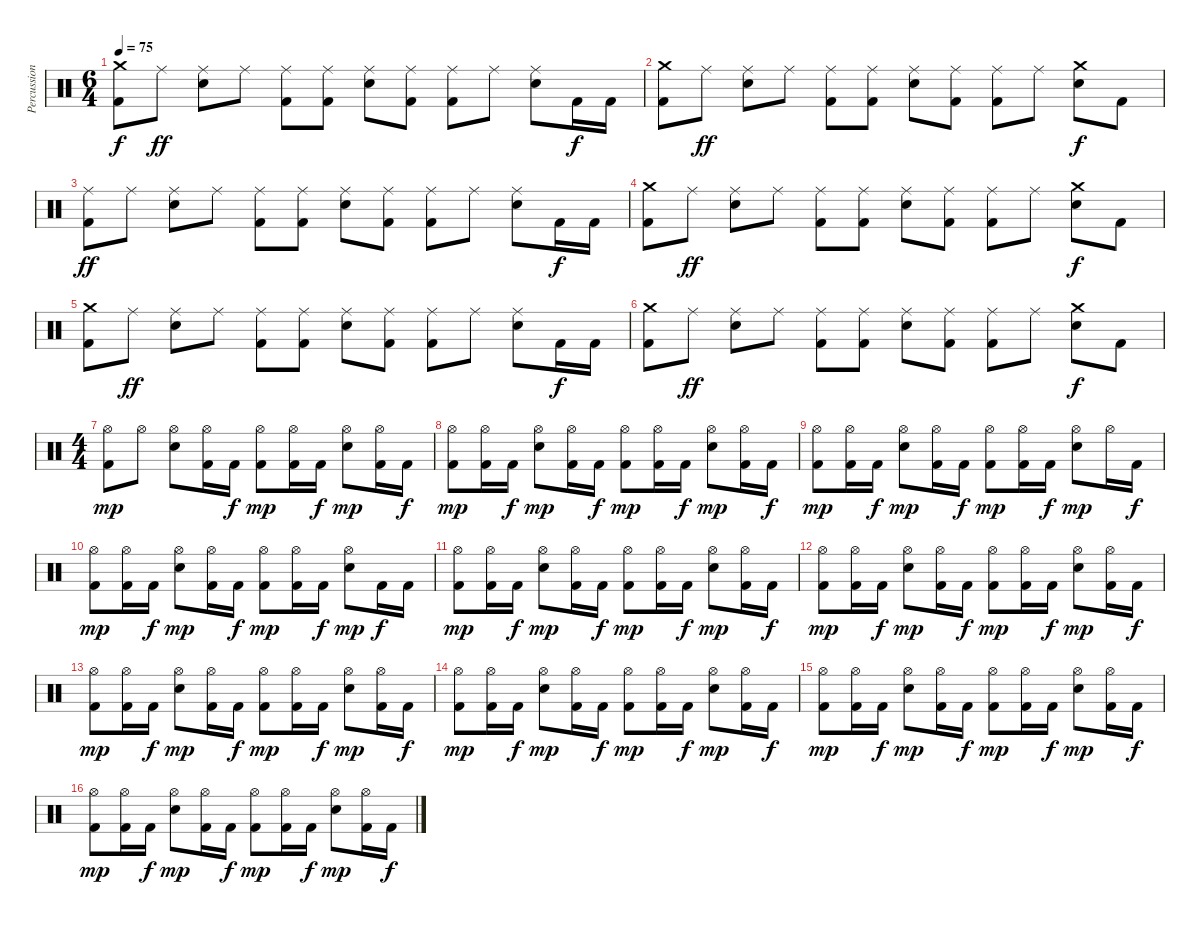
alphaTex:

\track ("Percussioni" "Percussion") {instrument percussion}
\staff {score}
\articulation defaults
\ts (6 4)
\tempo 75
\clef neutral
\ks c
("Kick (hit) 2" "Crash medium (hit)").8{dy f} "Ride (middle)".8{dy ff} ("Snare (hit) 2" "Ride (middle)").8 "Ride (middle)".8 ("Kick (hit) 2" "Ride (middle)").8 ("Kick (hit) 2" "Ride (middle)").8 ("Snare (hit) 2" "Ride (middle)").8 ("Kick (hit) 2" "Ride (middle)").8 ("Kick (hit) 2" "Ride (middle)").8 "Ride (middle)".8 ("Snare (hit) 2" "Ride (middle)").8 "Kick (hit) 2".16{dy f} "Kick (hit) 2".16 |
("Kick (hit) 2" "Crash medium (hit)").8 "Ride (middle)".8{dy ff} ("Snare (hit) 2" "Ride (middle)").8 "Ride (middle)".8 ("Kick (hit) 2" "Ride (middle)").8 ("Kick (hit) 2" "Ride (middle)").8 ("Snare (hit) 2" "Ride (middle)").8 ("Kick (hit) 2" "Ride (middle)").8 ("Kick (hit) 2" "Ride (middle)").8 "Ride (middle)".8 ("Snare (hit) 2" "Crash medium (hit)").8{dy f} "Kick (hit) 2".8 |
("Kick (hit) 2" "Ride (middle)").8{dy ff} "Ride (middle)".8 ("Snare (hit) 2" "Ride (middle)").8 "Ride (middle)".8 ("Kick (hit) 2" "Ride (middle)").8 ("Kick (hit) 2" "Ride (middle)").8 ("Snare (hit) 2" "Ride (middle)").8 ("Kick (hit) 2" "Ride (middle)").8 ("Kick (hit) 2" "Ride (middle)").8 "Ride (middle)".8 ("Snare (hit) 2" "Ride (middle)").8 "Kick (hit) 2".16{dy f} "Kick (hit) 2".16 |
("Kick (hit) 2" "Crash medium (hit)").8 "Ride (middle)".8{dy ff} ("Snare (hit) 2" "Ride (middle)").8 "Ride (middle)".8 ("Kick (hit) 2" "Ride (middle)").8 ("Kick (hit) 2" "Ride (middle)").8 ("Snare (hit) 2" "Ride (middle)").8 ("Kick (hit) 2" "Ride (middle)").8 ("Kick (hit) 2" "Ride (middle)").8 "Ride (middle)".8 ("Snare (hit) 2" "Crash medium (hit)").8{dy f} "Kick (hit) 2".8 |
("Kick (hit) 2" "Crash medium (hit)").8 "Ride (middle)".8{dy ff} ("Snare (hit) 2" "Ride (middle)").8 "Ride (middle)".8 ("Kick (hit) 2" "Ride (middle)").8 ("Kick (hit) 2" "Ride (middle)").8 ("Snare (hit) 2" "Ride (middle)").8 ("Kick (hit) 2" "Ride (middle)").8 ("Kick (hit) 2" "Ride (middle)").8 "Ride (middle)".8 ("Snare (hit) 2" "Ride (middle)").8 "Kick (hit) 2".16{dy f} "Kick (hit) 2".16 |
("Kick (hit) 2" "Crash medium (hit)").8 "Ride (middle)".8{dy ff} ("Snare (hit) 2" "Ride (middle)").8 "Ride (middle)".8 ("Kick (hit) 2" "Ride (middle)").8 ("Kick (hit) 2" "Ride (middle)").8 ("Snare (hit) 2" "Ride (middle)").8 ("Kick (hit) 2" "Ride (middle)").8 ("Kick (hit) 2" "Ride (middle)").8 "Ride (middle)".8 ("Snare (hit) 2" "Crash medium (hit)").8{dy f} "Kick (hit) 2".8 |
\ts (4 4)
("Kick (hit) 2" "Hi-Hat (open)").8{dy mp} "Hi-Hat (open)".8 ("Snare (hit) 2" "Hi-Hat (open)").8 ("Kick (hit) 2" "Hi-Hat (open)").16 "Kick (hit) 2".16{dy f} ("Kick (hit) 2" "Hi-Hat (open)").8{dy mp} ("Kick (hit) 2" "Hi-Hat (open)").16 "Kick (hit) 2".16{dy f} ("Snare (hit) 2" "Hi-Hat (open)").8{dy mp} ("Kick (hit) 2" "Hi-Hat (open)").16 "Kick (hit) 2".16{dy f} |
("Kick (hit) 2" "Hi-Hat (open)").8{dy mp} ("Kick (hit) 2" "Hi-Hat (open)").16 "Kick (hit) 2".16{dy f} ("Snare (hit) 2" "Hi-Hat (open)").8{dy mp} ("Kick (hit) 2" "Hi-Hat (open)").16 "Kick (hit) 2".16{dy f} ("Kick (hit) 2" "Hi-Hat (open)").8{dy mp} ("Kick (hit) 2" "Hi-Hat (open)").16 "Kick (hit) 2".16{dy f} ("Snare (hit) 2" "Hi-Hat (open)").8{dy mp} ("Kick (hit) 2" "Hi-Hat (open)").16 "Kick (hit) 2".16{dy f} |
("Kick (hit) 2" "Hi-Hat (open)").8{dy mp} ("Kick (hit) 2" "Hi-Hat (open)").16 "Kick (hit) 2".16{dy f} ("Snare (hit) 2" "Hi-Hat (open)").8{dy mp} ("Kick (hit) 2" "Hi-Hat (open)").16 "Kick (hit) 2".16{dy f} ("Kick (hit) 2" "Hi-Hat (open)").8{dy mp} ("Kick (hit) 2" "Hi-Hat (open)").16 "Kick (hit) 2".16{dy f} ("Snare (hit) 2" "Hi-Hat (open)").8{dy mp} "Hi-Hat (open)".16 "Kick (hit) 2".16{dy f} |
("Kick (hit) 2" "Hi-Hat (open)").8{dy mp} ("Kick (hit) 2" "Hi-Hat (open)").16 "Kick (hit) 2".16{dy f} ("Snare (hit) 2" "Hi-Hat (open)").8{dy mp} ("Kick (hit) 2" "Hi-Hat (open)").16 "Kick (hit) 2".16{dy f} ("Kick (hit) 2" "Hi-Hat (open)").8{dy mp} ("Kick (hit) 2" "Hi-Hat (open)").16 "Kick (hit) 2".16{dy f} ("Snare (hit) 2" "Hi-Hat (open)").8{dy mp} "Kick (hit) 2".16{dy f} "Kick (hit) 2".16 |
("Kick (hit) 2" "Hi-Hat (open)").8{dy mp} ("Kick (hit) 2" "Hi-Hat (open)").16 "Kick (hit) 2".16{dy f} ("Snare (hit) 2" "Hi-Hat (open)").8{dy mp} ("Kick (hit) 2" "Hi-Hat (open)").16 "Kick (hit) 2".16{dy f} ("Kick (hit) 2" "Hi-Hat (open)").8{dy mp} ("Kick (hit) 2" "Hi-Hat (open)").16 "Kick (hit) 2".16{dy f} ("Snare (hit) 2" "Hi-Hat (open)").8{dy mp} ("Kick (hit) 2" "Hi-Hat (open)").16 "Kick (hit) 2".16{dy f} |
("Kick (hit) 2" "Hi-Hat (open)").8{dy mp} ("Kick (hit) 2" "Hi-Hat (open)").16 "Kick (hit) 2".16{dy f} ("Snare (hit) 2" "Hi-Hat (open)").8{dy mp} ("Kick (hit) 2" "Hi-Hat (open)").16 "Kick (hit) 2".16{dy f} ("Kick (hit) 2" "Hi-Hat (open)").8{dy mp} ("Kick (hit) 2" "Hi-Hat (open)").16 "Kick (hit) 2".16{dy f} ("Snare (hit) 2" "Hi-Hat (open)").8{dy mp} ("Kick (hit) 2" "Hi-Hat (open)").16 "Kick (hit) 2".16{dy f} |
("Kick (hit) 2" "Hi-Hat (open)").8{dy mp} ("Kick (hit) 2" "Hi-Hat (open)").16 "Kick (hit) 2".16{dy f} ("Snare (hit) 2" "Hi-Hat (open)").8{dy mp} ("Kick (hit) 2" "Hi-Hat (open)").16 "Kick (hit) 2".16{dy f} ("Kick (hit) 2" "Hi-Hat (open)").8{dy mp} ("Kick (hit) 2" "Hi-Hat (open)").16 "Kick (hit) 2".16{dy f} ("Snare (hit) 2" "Hi-Hat (open)").8{dy mp} ("Kick (hit) 2" "Hi-Hat (open)").16 "Kick (hit) 2".16{dy f} |
("Kick (hit) 2" "Hi-Hat (open)").8{dy mp} ("Kick (hit) 2" "Hi-Hat (open)").16 "Kick (hit) 2".16{dy f} ("Snare (hit) 2" "Hi-Hat (open)").8{dy mp} ("Kick (hit) 2" "Hi-Hat (open)").16 "Kick (hit) 2".16{dy f} ("Kick (hit) 2" "Hi-Hat (open)").8{dy mp} ("Kick (hit) 2" "Hi-Hat (open)").16 "Kick (hit) 2".16{dy f} ("Snare (hit) 2" "Hi-Hat (open)").8{dy mp} ("Kick (hit) 2" "Hi-Hat (open)").16 "Kick (hit) 2".16{dy f} |
("Kick (hit) 2" "Hi-Hat (open)").8{dy mp} ("Kick (hit) 2" "Hi-Hat (open)").16 "Kick (hit) 2".16{dy f} ("Snare (hit) 2" "Hi-Hat (open)").8{dy mp} ("Kick (hit) 2" "Hi-Hat (open)").16 "Kick (hit) 2".16{dy f} ("Kick (hit) 2" "Hi-Hat (open)").8{dy mp} ("Kick (hit) 2" "Hi-Hat (open)").16 "Kick (hit) 2".16{dy f} ("Snare (hit) 2" "Hi-Hat (open)").8{dy mp} ("Kick (hit) 2" "Hi-Hat (open)").16 "Kick (hit) 2".16{dy f} |
("Kick (hit) 2" "Hi-Hat (open)").8{dy mp} ("Kick (hit) 2" "Hi-Hat (open)").16 "Kick (hit) 2".16{dy f} ("Snare (hit) 2" "Hi-Hat (open)").8{dy mp} ("Kick (hit) 2" "Hi-Hat (open)").16 "Kick (hit) 2".16{dy f} ("Kick (hit) 2" "Hi-Hat (open)").8{dy mp} ("Kick (hit) 2" "Hi-Hat (open)").16 "Kick (hit) 2".16{dy f} ("Snare (hit) 2" "Hi-Hat (open)").8{dy mp} ("Kick (hit) 2" "Hi-Hat (open)").16 "Kick (hit) 2".16{dy f}
